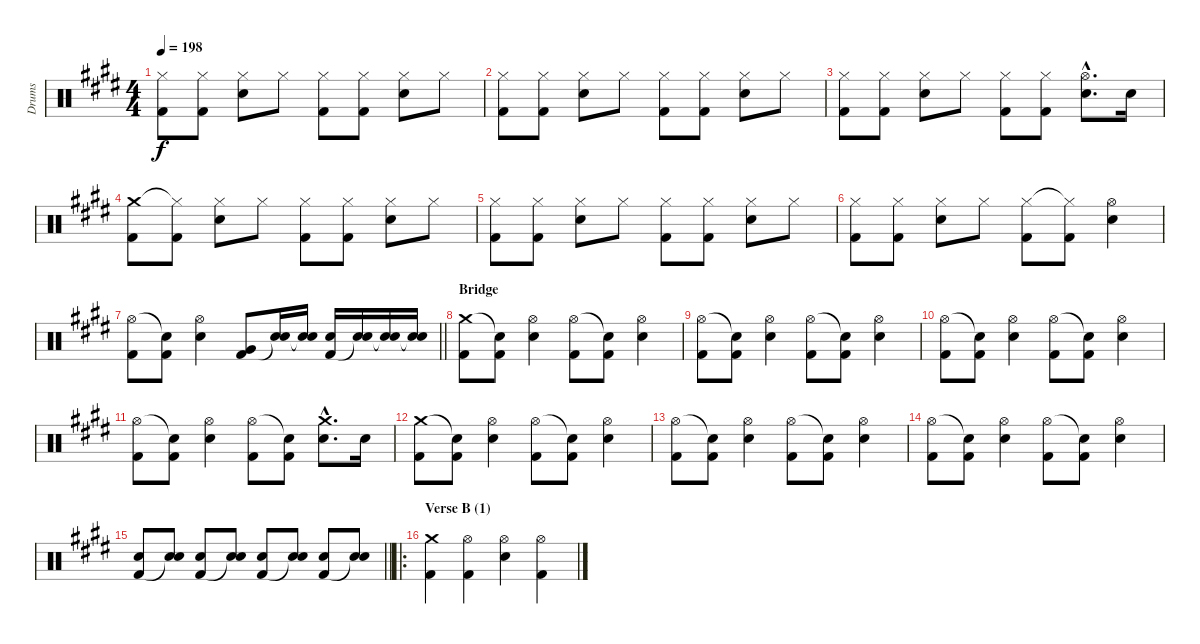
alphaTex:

\track ("Drums" "Drums") {instrument percussion}
\staff {score}
\articulation defaults
\ts (4 4)
\tempo 198
\clef neutral
\ks c#minor
("Hi-Hat (closed)" "Kick (hit) 2").8{dy f} ("Hi-Hat (closed)" "Kick (hit) 2").8 ("Hi-Hat (closed)" "Electric Snare (hit)").8 "Hi-Hat (closed)".8 ("Hi-Hat (closed)" "Kick (hit) 2").8 ("Hi-Hat (closed)" "Kick (hit) 2").8 ("Hi-Hat (closed)" "Electric Snare (hit)").8 "Hi-Hat (closed)".8 |
("Hi-Hat (closed)" "Kick (hit) 2").8 ("Hi-Hat (closed)" "Kick (hit) 2").8 ("Hi-Hat (closed)" "Electric Snare (hit)").8 "Hi-Hat (closed)".8 ("Hi-Hat (closed)" "Kick (hit) 2").8 ("Hi-Hat (closed)" "Kick (hit) 2").8 ("Hi-Hat (closed)" "Electric Snare (hit)").8 "Hi-Hat (closed)".8 |
("Hi-Hat (closed)" "Kick (hit) 2").8 ("Hi-Hat (closed)" "Kick (hit) 2").8 ("Hi-Hat (closed)" "Electric Snare (hit)").8 "Hi-Hat (closed)".8 ("Hi-Hat (closed)" "Kick (hit) 2").8 ("Hi-Hat (closed)" "Kick (hit) 2").8 ("Hi-Hat (open)"{hac} "Electric Snare (hit)"{hac}).8{d} "Electric Snare (hit)".16 |
("Crash medium (hit)" "Kick (hit) 2").8 ("Hi-Hat (closed)"{t} "Kick (hit) 2").8 ("Hi-Hat (closed)" "Electric Snare (hit)").8 "Hi-Hat (closed)".8 ("Hi-Hat (closed)" "Kick (hit) 2").8 ("Hi-Hat (closed)" "Kick (hit) 2").8 ("Hi-Hat (closed)" "Electric Snare (hit)").8 "Hi-Hat (closed)".8 |
("Hi-Hat (closed)" "Kick (hit) 2").8 ("Hi-Hat (closed)" "Kick (hit) 2").8 ("Hi-Hat (closed)" "Electric Snare (hit)").8 "Hi-Hat (closed)".8 ("Hi-Hat (closed)" "Kick (hit) 2").8 ("Hi-Hat (closed)" "Kick (hit) 2").8 ("Hi-Hat (closed)" "Electric Snare (hit)").8 "Hi-Hat (closed)".8 |
("Hi-Hat (closed)" "Kick (hit) 2").8 ("Hi-Hat (closed)" "Kick (hit) 2").8 ("Hi-Hat (closed)" "Electric Snare (hit)").8 "Hi-Hat (closed)".8 ("Hi-Hat (closed)" "Kick (hit) 2").8 ("Hi-Hat (closed)"{t} "Kick (hit) 2").8 ("Hi-Hat (open)" "Electric Snare (hit)").4 |
\barLineRight lightlight
("Hi-Hat (open)" "Kick (hit) 2").8 ("Snare (hit)"{t} "Kick (hit) 2").8 ("Hi-Hat (open)" "Electric Snare (hit)").4 ("Very Low Tom (hit)" "Kick (hit) 2").8 ("Electric Snare (hit)" "Snare (hit)"{t}).16 ("Electric Snare (hit)" "Snare (hit)"{t}).16 ("Electric Snare (hit)" "Kick (hit) 2").16 ("Electric Snare (hit)" "Snare (hit)"{t}).16 ("Electric Snare (hit)" "Snare (hit)"{t}).16 ("Electric Snare (hit)" "Snare (hit)"{t}).16 |
\section ("" "Bridge")
("Crash medium (hit)" "Kick (hit) 2").8 ("Snare (hit)"{t} "Kick (hit) 2").8 ("Hi-Hat (open)" "Electric Snare (hit)").4 ("Hi-Hat (open)" "Kick (hit) 2").8 ("Snare (hit)"{t} "Kick (hit) 2").8 ("Hi-Hat (open)" "Electric Snare (hit)").4 |
("Hi-Hat (open)" "Kick (hit) 2").8 ("Snare (hit)"{t} "Kick (hit) 2").8 ("Hi-Hat (open)" "Electric Snare (hit)").4 ("Hi-Hat (open)" "Kick (hit) 2").8 ("Snare (hit)"{t} "Kick (hit) 2").8 ("Hi-Hat (open)" "Electric Snare (hit)").4 |
("Hi-Hat (open)" "Kick (hit) 2").8 ("Snare (hit)"{t} "Kick (hit) 2").8 ("Hi-Hat (open)" "Electric Snare (hit)").4 ("Hi-Hat (open)" "Kick (hit) 2").8 ("Snare (hit)"{t} "Kick (hit) 2").8 ("Hi-Hat (open)" "Electric Snare (hit)").4 |
("Hi-Hat (open)" "Kick (hit) 2").8 ("Snare (hit)"{t} "Kick (hit) 2").8 ("Hi-Hat (open)" "Electric Snare (hit)").4 ("Hi-Hat (open)" "Kick (hit) 2").8 ("Snare (hit)"{t} "Kick (hit) 2").8 ("Crash medium (hit)"{hac} "Electric Snare (hit)"{hac}).8{d} "Electric Snare (hit)".16 |
("Crash medium (hit)" "Kick (hit) 2").8 ("Snare (hit)"{t} "Kick (hit) 2").8 ("Hi-Hat (open)" "Electric Snare (hit)").4 ("Hi-Hat (open)" "Kick (hit) 2").8 ("Snare (hit)"{t} "Kick (hit) 2").8 ("Hi-Hat (open)" "Electric Snare (hit)").4 |
("Hi-Hat (open)" "Kick (hit) 2").8 ("Snare (hit)"{t} "Kick (hit) 2").8 ("Hi-Hat (open)" "Electric Snare (hit)").4 ("Hi-Hat (open)" "Kick (hit) 2").8 ("Snare (hit)"{t} "Kick (hit) 2").8 ("Hi-Hat (open)" "Electric Snare (hit)").4 |
("Hi-Hat (open)" "Kick (hit) 2").8 ("Snare (hit)"{t} "Kick (hit) 2").8 ("Hi-Hat (open)" "Electric Snare (hit)").4 ("Hi-Hat (open)" "Kick (hit) 2").8 ("Snare (hit)"{t} "Kick (hit) 2").8 ("Hi-Hat (open)" "Electric Snare (hit)").4 |
\barLineRight lightlight
("Electric Snare (hit)" "Kick (hit) 2").8 ("Electric Snare (hit)" "Snare (hit)"{t}).8 ("Electric Snare (hit)" "Kick (hit) 2").8 ("Electric Snare (hit)" "Snare (hit)"{t}).8 ("Electric Snare (hit)" "Kick (hit) 2").8 ("Electric Snare (hit)" "Snare (hit)"{t}).8 ("Electric Snare (hit)" "Kick (hit) 2").8 ("Electric Snare (hit)" "Snare (hit)"{t}).8 |
\ro
\section ("" "Verse B (1)")
("Crash medium (hit)" "Kick (hit) 2").4 ("Hi-Hat (open)" "Kick (hit) 2").4 ("Hi-Hat (open)" "Electric Snare (hit)").4 ("Hi-Hat (open)" "Kick (hit) 2").4
